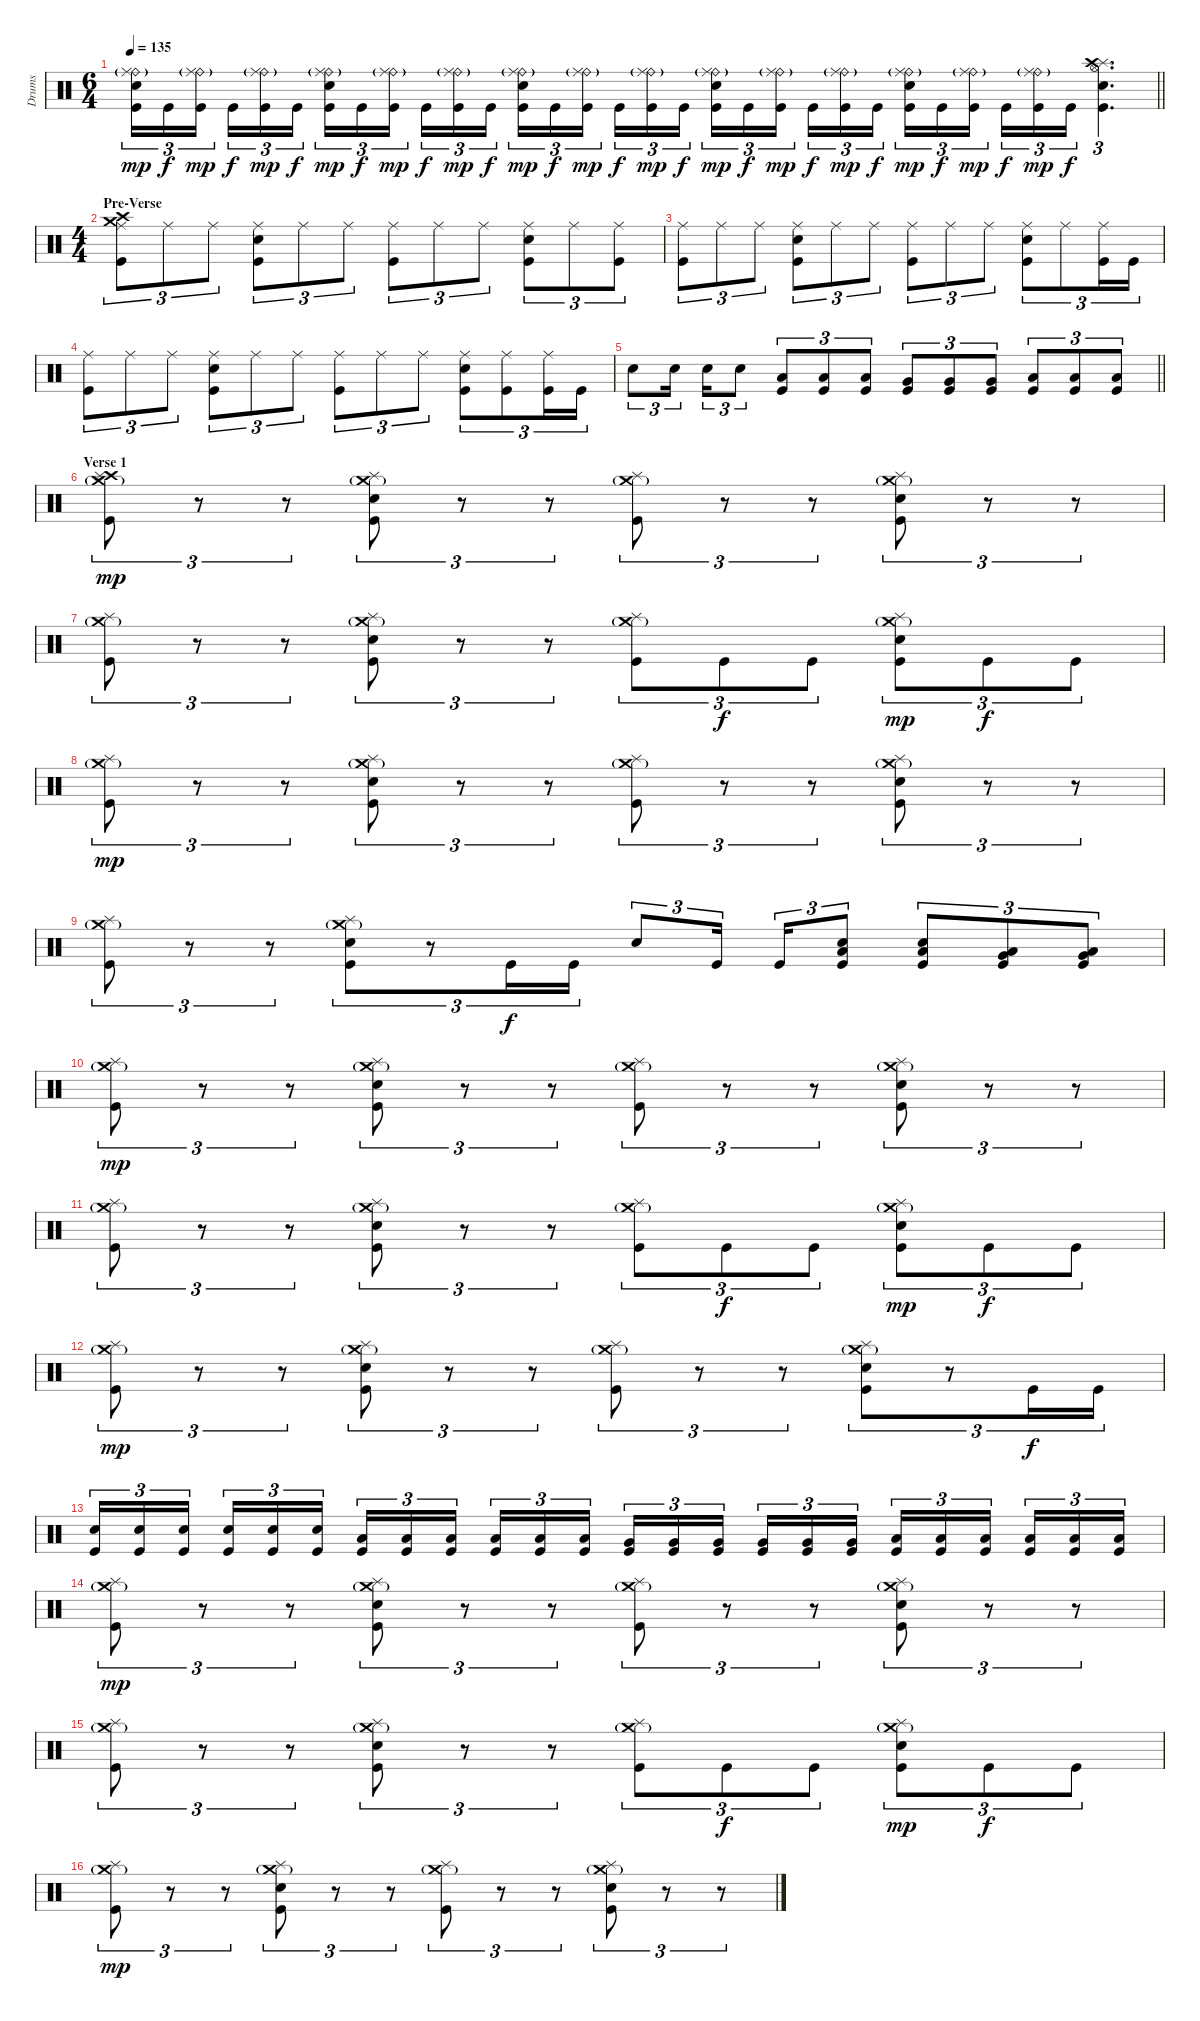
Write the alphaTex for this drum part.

\track ("Drums" "Drums") {instrument percussion}
\staff {score}
\articulation defaults
\ts (6 4)
\tempo 135
\clef neutral
\barLineRight lightlight
\ks c
("Ride (bell)" "Ride (middle)"{g} "Electric Snare (hit)" "Kick (hit)").16{tu (3 2) dy mp} "Kick (hit)".16{tu (3 2) dy f} ("Ride (bell)" "Ride (middle)"{g} "Kick (hit)").16{tu (3 2) dy mp beam splitsecondary} "Kick (hit)".16{tu (3 2) dy f} ("Ride (bell)" "Ride (middle)"{g} "Kick (hit)").16{tu (3 2) dy mp} "Kick (hit)".16{tu (3 2) dy f beam splitsecondary} ("Ride (bell)" "Ride (middle)"{g} "Electric Snare (hit)" "Kick (hit)").16{tu (3 2) dy mp} "Kick (hit)".16{tu (3 2) dy f} ("Ride (bell)" "Ride (middle)"{g} "Kick (hit)").16{tu (3 2) dy mp beam splitsecondary} "Kick (hit)".16{tu (3 2) dy f} ("Ride (bell)" "Ride (middle)"{g} "Kick (hit)").16{tu (3 2) dy mp} "Kick (hit)".16{tu (3 2) dy f beam splitsecondary} ("Ride (bell)" "Ride (middle)"{g} "Electric Snare (hit)" "Kick (hit)").16{tu (3 2) dy mp} "Kick (hit)".16{tu (3 2) dy f} ("Ride (bell)" "Ride (middle)"{g} "Kick (hit)").16{tu (3 2) dy mp beam splitsecondary} "Kick (hit)".16{tu (3 2) dy f} ("Ride (bell)" "Ride (middle)"{g} "Kick (hit)").16{tu (3 2) dy mp} "Kick (hit)".16{tu (3 2) dy f} ("Ride (bell)" "Ride (middle)"{g} "Electric Snare (hit)" "Kick (hit)").16{tu (3 2) dy mp} "Kick (hit)".16{tu (3 2) dy f} ("Ride (bell)" "Ride (middle)"{g} "Kick (hit)").16{tu (3 2) dy mp beam splitsecondary} "Kick (hit)".16{tu (3 2) dy f} ("Ride (bell)" "Ride (middle)"{g} "Kick (hit)").16{tu (3 2) dy mp} "Kick (hit)".16{tu (3 2) dy f beam splitsecondary} ("Ride (bell)" "Ride (middle)"{g} "Electric Snare (hit)" "Kick (hit)").16{tu (3 2) dy mp} "Kick (hit)".16{tu (3 2) dy f} ("Ride (bell)" "Ride (middle)"{g} "Kick (hit)").16{tu (3 2) dy mp beam splitsecondary} "Kick (hit)".16{tu (3 2) dy f} ("Ride (bell)" "Ride (middle)"{g} "Kick (hit)").16{tu (3 2) dy mp} "Kick (hit)".16{tu (3 2) dy f} ("Splash (hit)" "Hi-Hat (open)" "Crash high (hit)" "Electric Snare (hit)" "Kick (hit)").4{d tu (3 2)} |
\ts (4 4)
\section ("" "Pre-Verse")
("Ride (middle)" "Crash high (hit)" "Crash medium (hit)" "Kick (hit)").8{tu (3 2)} "Ride (middle)".8{tu (3 2)} "Ride (middle)".8{tu (3 2)} ("Ride (middle)" "Electric Snare (hit)" "Kick (hit)").8{tu (3 2)} "Ride (middle)".8{tu (3 2)} "Ride (middle)".8{tu (3 2)} ("Ride (middle)" "Kick (hit)").8{tu (3 2)} "Ride (middle)".8{tu (3 2)} "Ride (middle)".8{tu (3 2)} ("Ride (middle)" "Electric Snare (hit)" "Kick (hit)").8{tu (3 2)} "Ride (middle)".8{tu (3 2)} ("Ride (middle)" "Kick (hit)").8{tu (3 2)} |
("Ride (middle)" "Kick (hit)").8{tu (3 2)} "Ride (middle)".8{tu (3 2)} "Ride (middle)".8{tu (3 2)} ("Ride (middle)" "Electric Snare (hit)" "Kick (hit)").8{tu (3 2)} "Ride (middle)".8{tu (3 2)} "Ride (middle)".8{tu (3 2)} ("Ride (middle)" "Kick (hit)").8{tu (3 2)} "Ride (middle)".8{tu (3 2)} "Ride (middle)".8{tu (3 2)} ("Ride (middle)" "Electric Snare (hit)" "Kick (hit)").8{tu (3 2)} "Ride (middle)".8{tu (3 2)} ("Ride (middle)" "Kick (hit)").16{tu (3 2)} "Kick (hit)".16{tu (3 2)} |
("Ride (middle)" "Kick (hit)").8{tu (3 2)} "Ride (middle)".8{tu (3 2)} "Ride (middle)".8{tu (3 2)} ("Ride (middle)" "Electric Snare (hit)" "Kick (hit)").8{tu (3 2)} "Ride (middle)".8{tu (3 2)} "Ride (middle)".8{tu (3 2)} ("Ride (middle)" "Kick (hit)").8{tu (3 2)} "Ride (middle)".8{tu (3 2)} "Ride (middle)".8{tu (3 2)} ("Ride (middle)" "Electric Snare (hit)" "Kick (hit)").8{tu (3 2)} ("Ride (middle)" "Kick (hit)").8{tu (3 2)} ("Ride (middle)" "Kick (hit)").16{tu (3 2)} "Kick (hit)".16{tu (3 2)} |
\barLineRight lightlight "Electric Snare (hit)".8{tu (3 2)} "Electric Snare (hit)".16{tu (3 2) beam splitsecondary} "Electric Snare (hit)".16{tu (3 2)} "Electric Snare (hit)".8{tu (3 2)}
("Low Tom (hit)" "Kick (hit)").8{tu (3 2)} ("Low Tom (hit)" "Kick (hit)").8{tu (3 2)} ("Low Tom (hit)" "Kick (hit)").8{tu (3 2)} ("Very Low Tom (hit)" "Kick (hit)").8{tu (3 2)} ("Very Low Tom (hit)" "Kick (hit)").8{tu (3 2)} ("Very Low Tom (hit)" "Kick (hit)").8{tu (3 2)} ("Low Floor Tom (hit)" "Kick (hit)").8{tu (3 2)} ("Low Floor Tom (hit)" "Kick (hit)").8{tu (3 2)} ("Low Floor Tom (hit)" "Kick (hit)").8{tu (3 2)} |
\section ("" "Verse 1")
("Crash high (hit)" "Crash medium (hit)"{g} "Splash (hit)" "Kick (hit)").8{tu (3 2) dy mp} r.8{tu (3 2)} r.8{tu (3 2)} ("Crash medium (hit)"{g} "Splash (hit)" "Electric Snare (hit)" "Kick (hit)").8{tu (3 2)} r.8{tu (3 2)} r.8{tu (3 2)} ("Crash medium (hit)"{g} "Splash (hit)" "Kick (hit)").8{tu (3 2)} r.8{tu (3 2)} r.8{tu (3 2)} ("Crash medium (hit)"{g} "Splash (hit)" "Electric Snare (hit)" "Kick (hit)").8{tu (3 2)} r.8{tu (3 2)} r.8{tu (3 2)} |
("Crash medium (hit)"{g} "Splash (hit)" "Kick (hit)").8{tu (3 2)} r.8{tu (3 2)} r.8{tu (3 2)} ("Crash medium (hit)"{g} "Splash (hit)" "Electric Snare (hit)" "Kick (hit)").8{tu (3 2)} r.8{tu (3 2)} r.8{tu (3 2)} ("Crash medium (hit)"{g} "Splash (hit)" "Kick (hit)").8{tu (3 2)} "Kick (hit)".8{tu (3 2) dy f} "Kick (hit)".8{tu (3 2)} ("Crash medium (hit)"{g} "Splash (hit)" "Electric Snare (hit)" "Kick (hit)").8{tu (3 2) dy mp} "Kick (hit)".8{tu (3 2) dy f} "Kick (hit)".8{tu (3 2)} |
("Crash medium (hit)"{g} "Splash (hit)" "Kick (hit)").8{tu (3 2) dy mp} r.8{tu (3 2)} r.8{tu (3 2)} ("Crash medium (hit)"{g} "Splash (hit)" "Electric Snare (hit)" "Kick (hit)").8{tu (3 2)} r.8{tu (3 2)} r.8{tu (3 2)} ("Crash medium (hit)"{g} "Splash (hit)" "Kick (hit)").8{tu (3 2)} r.8{tu (3 2)} r.8{tu (3 2)} ("Crash medium (hit)"{g} "Splash (hit)" "Electric Snare (hit)" "Kick (hit)").8{tu (3 2)} r.8{tu (3 2)} r.8{tu (3 2)} |
("Crash medium (hit)"{g} "Splash (hit)" "Kick (hit)").8{tu (3 2)} r.8{tu (3 2)} r.8{tu (3 2)} ("Crash medium (hit)"{g} "Splash (hit)" "Electric Snare (hit)" "Kick (hit)").8{tu (3 2)} r.8{tu (3 2)} "Kick (hit)".16{tu (3 2) dy f} "Kick (hit)".16{tu (3 2)} "Electric Snare (hit)".8{tu (3 2)} "Kick (hit)".16{tu (3 2) beam splitsecondary} "Kick (hit)".16{tu (3 2)} ("Kick (hit)" "Low Tom (hit)" "Electric Snare (hit)").8{tu (3 2)} ("Kick (hit)" "Low Tom (hit)" "Electric Snare (hit)").8{tu (3 2)} ("Kick (hit)" "Very Low Tom (hit)" "Low Floor Tom (hit)").8{tu (3 2)} ("Kick (hit)" "Very Low Tom (hit)" "Low Floor Tom (hit)").8{tu (3 2)} |
("Crash medium (hit)"{g} "Splash (hit)" "Kick (hit)").8{tu (3 2) dy mp} r.8{tu (3 2)} r.8{tu (3 2)} ("Crash medium (hit)"{g} "Splash (hit)" "Electric Snare (hit)" "Kick (hit)").8{tu (3 2)} r.8{tu (3 2)} r.8{tu (3 2)} ("Crash medium (hit)"{g} "Splash (hit)" "Kick (hit)").8{tu (3 2)} r.8{tu (3 2)} r.8{tu (3 2)} ("Crash medium (hit)"{g} "Splash (hit)" "Electric Snare (hit)" "Kick (hit)").8{tu (3 2)} r.8{tu (3 2)} r.8{tu (3 2)} |
("Crash medium (hit)"{g} "Splash (hit)" "Kick (hit)").8{tu (3 2)} r.8{tu (3 2)} r.8{tu (3 2)} ("Crash medium (hit)"{g} "Splash (hit)" "Electric Snare (hit)" "Kick (hit)").8{tu (3 2)} r.8{tu (3 2)} r.8{tu (3 2)} ("Crash medium (hit)"{g} "Splash (hit)" "Kick (hit)").8{tu (3 2)} "Kick (hit)".8{tu (3 2) dy f} "Kick (hit)".8{tu (3 2)} ("Crash medium (hit)"{g} "Splash (hit)" "Electric Snare (hit)" "Kick (hit)").8{tu (3 2) dy mp} "Kick (hit)".8{tu (3 2) dy f} "Kick (hit)".8{tu (3 2)} |
("Crash medium (hit)"{g} "Splash (hit)" "Kick (hit)").8{tu (3 2) dy mp} r.8{tu (3 2)} r.8{tu (3 2)} ("Crash medium (hit)"{g} "Splash (hit)" "Electric Snare (hit)" "Kick (hit)").8{tu (3 2)} r.8{tu (3 2)} r.8{tu (3 2)} ("Crash medium (hit)"{g} "Splash (hit)" "Kick (hit)").8{tu (3 2)} r.8{tu (3 2)} r.8{tu (3 2)} ("Crash medium (hit)"{g} "Splash (hit)" "Electric Snare (hit)" "Kick (hit)").8{tu (3 2)} r.8{tu (3 2)} "Kick (hit)".16{tu (3 2) dy f} "Kick (hit)".16{tu (3 2)} |
("Kick (hit)" "Electric Snare (hit)").16{tu (3 2)} ("Kick (hit)" "Electric Snare (hit)").16{tu (3 2)} ("Kick (hit)" "Electric Snare (hit)").16{tu (3 2) beam splitsecondary} ("Kick (hit)" "Electric Snare (hit)").16{tu (3 2)} ("Kick (hit)" "Electric Snare (hit)").16{tu (3 2)} ("Kick (hit)" "Electric Snare (hit)").16{tu (3 2)} ("Kick (hit)" "Low Tom (hit)").16{tu (3 2)} ("Kick (hit)" "Low Tom (hit)").16{tu (3 2)} ("Kick (hit)" "Low Tom (hit)").16{tu (3 2) beam splitsecondary} ("Kick (hit)" "Low Tom (hit)").16{tu (3 2)} ("Kick (hit)" "Low Tom (hit)").16{tu (3 2)} ("Kick (hit)" "Low Tom (hit)").16{tu (3 2)} ("Kick (hit)" "Very Low Tom (hit)").16{tu (3 2)} ("Kick (hit)" "Very Low Tom (hit)").16{tu (3 2)} ("Kick (hit)" "Very Low Tom (hit)").16{tu (3 2) beam splitsecondary} ("Kick (hit)" "Very Low Tom (hit)").16{tu (3 2)} ("Kick (hit)" "Very Low Tom (hit)").16{tu (3 2)} ("Kick (hit)" "Very Low Tom (hit)").16{tu (3 2)} ("Kick (hit)" "Low Floor Tom (hit)").16{tu (3 2)} ("Kick (hit)" "Low Floor Tom (hit)").16{tu (3 2)} ("Kick (hit)" "Low Floor Tom (hit)").16{tu (3 2) beam splitsecondary} ("Kick (hit)" "Low Floor Tom (hit)").16{tu (3 2)} ("Kick (hit)" "Low Floor Tom (hit)").16{tu (3 2)} ("Kick (hit)" "Low Floor Tom (hit)").16{tu (3 2)} |
("Crash medium (hit)"{g} "Splash (hit)" "Kick (hit)").8{tu (3 2) dy mp} r.8{tu (3 2)} r.8{tu (3 2)} ("Crash medium (hit)"{g} "Splash (hit)" "Electric Snare (hit)" "Kick (hit)").8{tu (3 2)} r.8{tu (3 2)} r.8{tu (3 2)} ("Crash medium (hit)"{g} "Splash (hit)" "Kick (hit)").8{tu (3 2)} r.8{tu (3 2)} r.8{tu (3 2)} ("Crash medium (hit)"{g} "Splash (hit)" "Electric Snare (hit)" "Kick (hit)").8{tu (3 2)} r.8{tu (3 2)} r.8{tu (3 2)} |
("Crash medium (hit)"{g} "Splash (hit)" "Kick (hit)").8{tu (3 2)} r.8{tu (3 2)} r.8{tu (3 2)} ("Crash medium (hit)"{g} "Splash (hit)" "Electric Snare (hit)" "Kick (hit)").8{tu (3 2)} r.8{tu (3 2)} r.8{tu (3 2)} ("Crash medium (hit)"{g} "Splash (hit)" "Kick (hit)").8{tu (3 2)} "Kick (hit)".8{tu (3 2) dy f} "Kick (hit)".8{tu (3 2)} ("Crash medium (hit)"{g} "Splash (hit)" "Electric Snare (hit)" "Kick (hit)").8{tu (3 2) dy mp} "Kick (hit)".8{tu (3 2) dy f} "Kick (hit)".8{tu (3 2)} |
("Crash medium (hit)"{g} "Splash (hit)" "Kick (hit)").8{tu (3 2) dy mp} r.8{tu (3 2)} r.8{tu (3 2)} ("Crash medium (hit)"{g} "Splash (hit)" "Electric Snare (hit)" "Kick (hit)").8{tu (3 2)} r.8{tu (3 2)} r.8{tu (3 2)} ("Crash medium (hit)"{g} "Splash (hit)" "Kick (hit)").8{tu (3 2)} r.8{tu (3 2)} r.8{tu (3 2)} ("Crash medium (hit)"{g} "Splash (hit)" "Electric Snare (hit)" "Kick (hit)").8{tu (3 2)} r.8{tu (3 2)} r.8{tu (3 2)}
